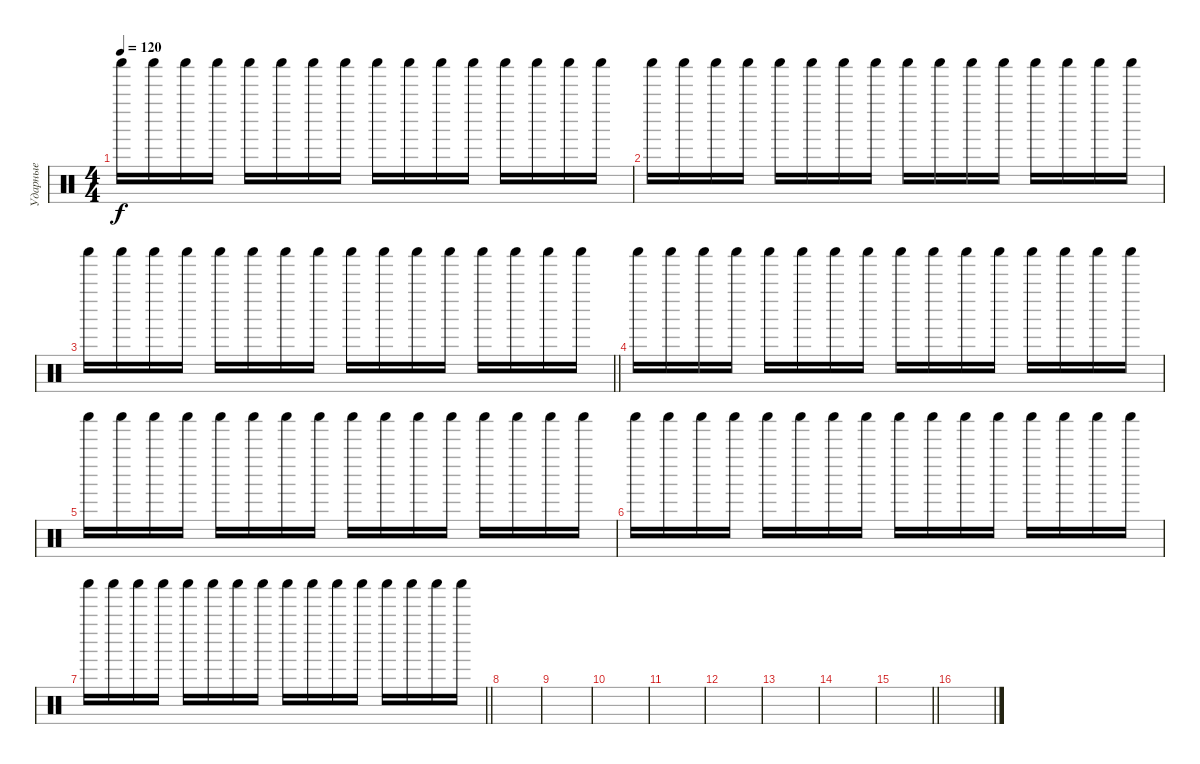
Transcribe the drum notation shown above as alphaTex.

\track ("Ударные" "Ударные") {instrument percussion}
\staff {score}
\articulation defaults
\ts (4 4)
\tempo 120
\clef neutral
\ks c "Shaker (hit)".16{dy f} "Shaker (hit)".16 "Shaker (hit)".16 "Shaker (hit)".16 "Shaker (hit)".16 "Shaker (hit)".16 "Shaker (hit)".16 "Shaker (hit)".16 "Shaker (hit)".16 "Shaker (hit)".16 "Shaker (hit)".16 "Shaker (hit)".16 "Shaker (hit)".16 "Shaker (hit)".16 "Shaker (hit)".16 "Shaker (hit)".16
|
"Shaker (hit)".16 "Shaker (hit)".16 "Shaker (hit)".16 "Shaker (hit)".16 "Shaker (hit)".16 "Shaker (hit)".16 "Shaker (hit)".16 "Shaker (hit)".16 "Shaker (hit)".16 "Shaker (hit)".16 "Shaker (hit)".16 "Shaker (hit)".16 "Shaker (hit)".16 "Shaker (hit)".16 "Shaker (hit)".16 "Shaker (hit)".16 |
\barLineRight lightlight "Shaker (hit)".16 "Shaker (hit)".16 "Shaker (hit)".16 "Shaker (hit)".16 "Shaker (hit)".16 "Shaker (hit)".16 "Shaker (hit)".16 "Shaker (hit)".16 "Shaker (hit)".16 "Shaker (hit)".16 "Shaker (hit)".16 "Shaker (hit)".16 "Shaker (hit)".16 "Shaker (hit)".16 "Shaker (hit)".16 "Shaker (hit)".16
|
"Shaker (hit)".16 "Shaker (hit)".16 "Shaker (hit)".16 "Shaker (hit)".16 "Shaker (hit)".16 "Shaker (hit)".16 "Shaker (hit)".16 "Shaker (hit)".16 "Shaker (hit)".16 "Shaker (hit)".16 "Shaker (hit)".16 "Shaker (hit)".16 "Shaker (hit)".16 "Shaker (hit)".16 "Shaker (hit)".16 "Shaker (hit)".16 |
"Shaker (hit)".16 "Shaker (hit)".16 "Shaker (hit)".16 "Shaker (hit)".16 "Shaker (hit)".16 "Shaker (hit)".16 "Shaker (hit)".16 "Shaker (hit)".16 "Shaker (hit)".16 "Shaker (hit)".16 "Shaker (hit)".16 "Shaker (hit)".16 "Shaker (hit)".16 "Shaker (hit)".16 "Shaker (hit)".16 "Shaker (hit)".16 |
"Shaker (hit)".16 "Shaker (hit)".16 "Shaker (hit)".16 "Shaker (hit)".16 "Shaker (hit)".16 "Shaker (hit)".16 "Shaker (hit)".16 "Shaker (hit)".16 "Shaker (hit)".16 "Shaker (hit)".16 "Shaker (hit)".16 "Shaker (hit)".16 "Shaker (hit)".16 "Shaker (hit)".16 "Shaker (hit)".16 "Shaker (hit)".16 |
\barLineRight lightlight "Shaker (hit)".16 "Shaker (hit)".16 "Shaker (hit)".16 "Shaker (hit)".16 "Shaker (hit)".16 "Shaker (hit)".16 "Shaker (hit)".16 "Shaker (hit)".16 "Shaker (hit)".16 "Shaker (hit)".16 "Shaker (hit)".16 "Shaker (hit)".16 "Shaker (hit)".16 "Shaker (hit)".16 "Shaker (hit)".16 "Shaker (hit)".16
|
\section ("" "")
|
|
|
|
|
|
|
\barLineRight lightlight
|
\section ("" "")
